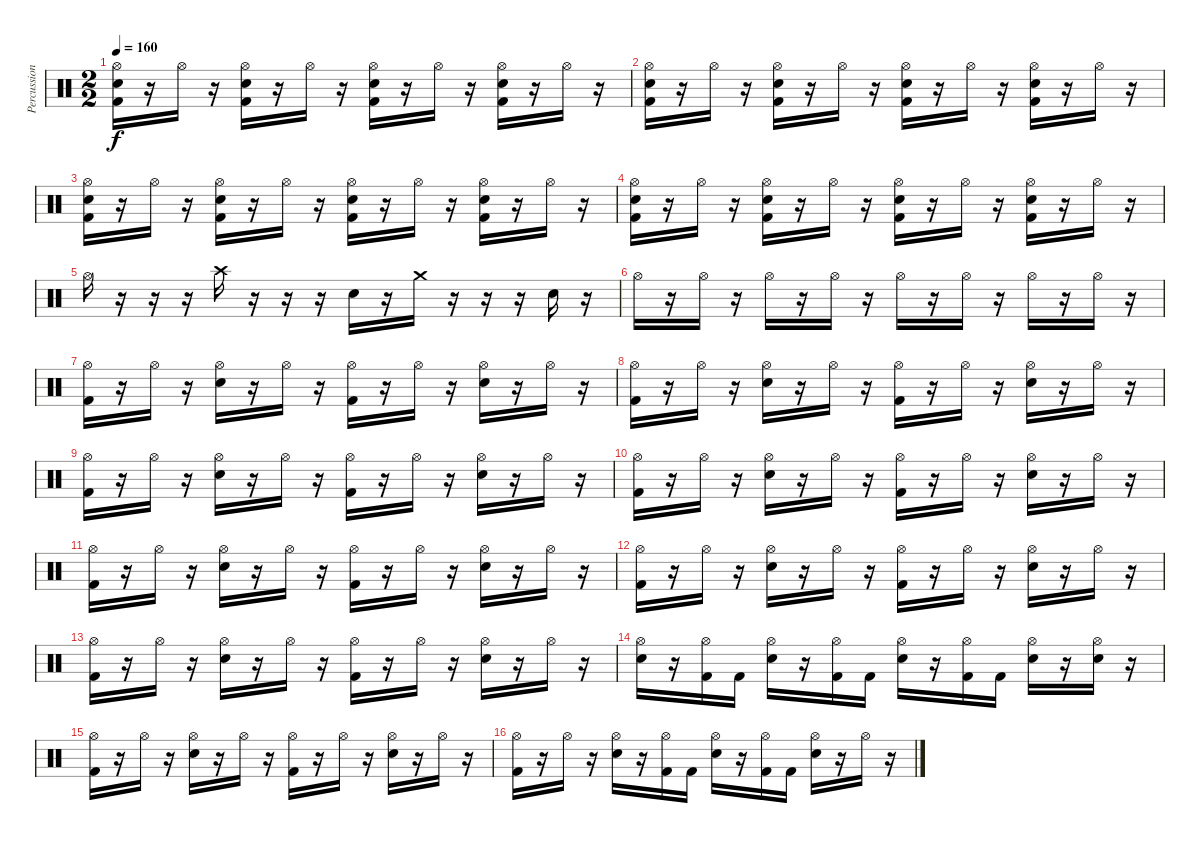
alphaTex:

\track ("Percussion" "Percussion") {instrument percussion}
\staff {score}
\articulation defaults
\ts (2 2)
\tempo 160
\clef neutral
\ks c
("Hi-Hat (open)" "Kick (hit) 2" "Snare (hit) 2").16{dy f} r.16 "Hi-Hat (open)".16 r.16 ("Hi-Hat (open)" "Kick (hit) 2" "Snare (hit) 2").16 r.16 "Hi-Hat (open)".16 r.16 ("Hi-Hat (open)" "Kick (hit) 2" "Snare (hit) 2").16 r.16 "Hi-Hat (open)".16 r.16 ("Hi-Hat (open)" "Kick (hit) 2" "Snare (hit) 2").16 r.16 "Hi-Hat (open)".16 r.16 |
("Hi-Hat (open)" "Kick (hit) 2" "Snare (hit) 2").16 r.16 "Hi-Hat (open)".16 r.16 ("Hi-Hat (open)" "Kick (hit) 2" "Snare (hit) 2").16 r.16 "Hi-Hat (open)".16 r.16 ("Hi-Hat (open)" "Kick (hit) 2" "Snare (hit) 2").16 r.16 "Hi-Hat (open)".16 r.16 ("Hi-Hat (open)" "Kick (hit) 2" "Snare (hit) 2").16 r.16 "Hi-Hat (open)".16 r.16 |
("Hi-Hat (open)" "Kick (hit) 2" "Snare (hit) 2").16 r.16 "Hi-Hat (open)".16 r.16 ("Hi-Hat (open)" "Kick (hit) 2" "Snare (hit) 2").16 r.16 "Hi-Hat (open)".16 r.16 ("Hi-Hat (open)" "Kick (hit) 2" "Snare (hit) 2").16 r.16 "Hi-Hat (open)".16 r.16 ("Hi-Hat (open)" "Kick (hit) 2" "Snare (hit) 2").16 r.16 "Hi-Hat (open)".16 r.16 |
("Hi-Hat (open)" "Kick (hit) 2" "Snare (hit) 2").16 r.16 "Hi-Hat (open)".16 r.16 ("Hi-Hat (open)" "Kick (hit) 2" "Snare (hit) 2").16 r.16 "Hi-Hat (open)".16 r.16 ("Hi-Hat (open)" "Kick (hit) 2" "Snare (hit) 2").16 r.16 "Hi-Hat (open)".16 r.16 ("Hi-Hat (open)" "Kick (hit) 2" "Snare (hit) 2").16 r.16 "Hi-Hat (open)".16 r.16 |
"Hi-Hat (open)".16 r.16 r.16 r.16 "Crash high (hit)".16 r.16 r.16 r.16 "Snare (hit) 2".16 r.16 "Crash medium (hit)".16 r.16 r.16 r.16 "Snare (hit) 2".16 r.16 |
"Hi-Hat (open)".16 r.16 "Hi-Hat (open)".16 r.16 "Hi-Hat (open)".16 r.16 "Hi-Hat (open)".16 r.16 "Hi-Hat (open)".16 r.16 "Hi-Hat (open)".16 r.16 "Hi-Hat (open)".16 r.16 "Hi-Hat (open)".16 r.16 |
("Hi-Hat (open)" "Kick (hit) 2").16 r.16 "Hi-Hat (open)".16 r.16 ("Hi-Hat (open)" "Snare (hit) 2").16 r.16 "Hi-Hat (open)".16 r.16 ("Hi-Hat (open)" "Kick (hit) 2").16 r.16 "Hi-Hat (open)".16 r.16 ("Hi-Hat (open)" "Snare (hit) 2").16 r.16 "Hi-Hat (open)".16 r.16 |
("Hi-Hat (open)" "Kick (hit) 2").16 r.16 "Hi-Hat (open)".16 r.16 ("Hi-Hat (open)" "Snare (hit) 2").16 r.16 "Hi-Hat (open)".16 r.16 ("Hi-Hat (open)" "Kick (hit) 2").16 r.16 "Hi-Hat (open)".16 r.16 ("Hi-Hat (open)" "Snare (hit) 2").16 r.16 "Hi-Hat (open)".16 r.16 |
("Hi-Hat (open)" "Kick (hit) 2").16 r.16 "Hi-Hat (open)".16 r.16 ("Hi-Hat (open)" "Snare (hit) 2").16 r.16 "Hi-Hat (open)".16 r.16 ("Hi-Hat (open)" "Kick (hit) 2").16 r.16 "Hi-Hat (open)".16 r.16 ("Hi-Hat (open)" "Snare (hit) 2").16 r.16 "Hi-Hat (open)".16 r.16 |
("Hi-Hat (open)" "Kick (hit) 2").16 r.16 "Hi-Hat (open)".16 r.16 ("Hi-Hat (open)" "Snare (hit) 2").16 r.16 "Hi-Hat (open)".16 r.16 ("Hi-Hat (open)" "Kick (hit) 2").16 r.16 "Hi-Hat (open)".16 r.16 ("Hi-Hat (open)" "Snare (hit) 2").16 r.16 "Hi-Hat (open)".16 r.16 |
("Hi-Hat (open)" "Kick (hit) 2").16 r.16 "Hi-Hat (open)".16 r.16 ("Hi-Hat (open)" "Snare (hit) 2").16 r.16 "Hi-Hat (open)".16 r.16 ("Hi-Hat (open)" "Kick (hit) 2").16 r.16 "Hi-Hat (open)".16 r.16 ("Hi-Hat (open)" "Snare (hit) 2").16 r.16 "Hi-Hat (open)".16 r.16 |
("Hi-Hat (open)" "Kick (hit) 2").16 r.16 "Hi-Hat (open)".16 r.16 ("Hi-Hat (open)" "Snare (hit) 2").16 r.16 "Hi-Hat (open)".16 r.16 ("Hi-Hat (open)" "Kick (hit) 2").16 r.16 "Hi-Hat (open)".16 r.16 ("Hi-Hat (open)" "Snare (hit) 2").16 r.16 "Hi-Hat (open)".16 r.16 |
("Hi-Hat (open)" "Kick (hit) 2").16 r.16 "Hi-Hat (open)".16 r.16 ("Hi-Hat (open)" "Snare (hit) 2").16 r.16 "Hi-Hat (open)".16 r.16 ("Hi-Hat (open)" "Kick (hit) 2").16 r.16 "Hi-Hat (open)".16 r.16 ("Hi-Hat (open)" "Snare (hit) 2").16 r.16 "Hi-Hat (open)".16 r.16 |
("Hi-Hat (open)" "Snare (hit) 2").16 r.16 ("Hi-Hat (open)" "Kick (hit) 2").16 "Kick (hit) 2".16 ("Hi-Hat (open)" "Snare (hit) 2").16 r.16 ("Hi-Hat (open)" "Kick (hit) 2").16 "Kick (hit) 2".16 ("Hi-Hat (open)" "Snare (hit) 2").16 r.16 ("Hi-Hat (open)" "Kick (hit) 2").16 "Kick (hit) 2".16 ("Hi-Hat (open)" "Snare (hit) 2").16 r.16 ("Hi-Hat (open)" "Snare (hit) 2").16 r.16 |
("Hi-Hat (open)" "Kick (hit) 2").16 r.16 "Hi-Hat (open)".16 r.16 ("Hi-Hat (open)" "Snare (hit) 2").16 r.16 "Hi-Hat (open)".16 r.16 ("Hi-Hat (open)" "Kick (hit) 2").16 r.16 "Hi-Hat (open)".16 r.16 ("Hi-Hat (open)" "Snare (hit) 2").16 r.16 "Hi-Hat (open)".16 r.16 |
("Hi-Hat (open)" "Kick (hit) 2").16 r.16 "Hi-Hat (open)".16 r.16 ("Hi-Hat (open)" "Snare (hit) 2").16 r.16 ("Hi-Hat (open)" "Kick (hit) 2").16 "Kick (hit) 2".16 ("Hi-Hat (open)" "Snare (hit) 2").16 r.16 ("Hi-Hat (open)" "Kick (hit) 2").16 "Kick (hit) 2".16 ("Hi-Hat (open)" "Snare (hit) 2").16 r.16 "Hi-Hat (open)".16 r.16
